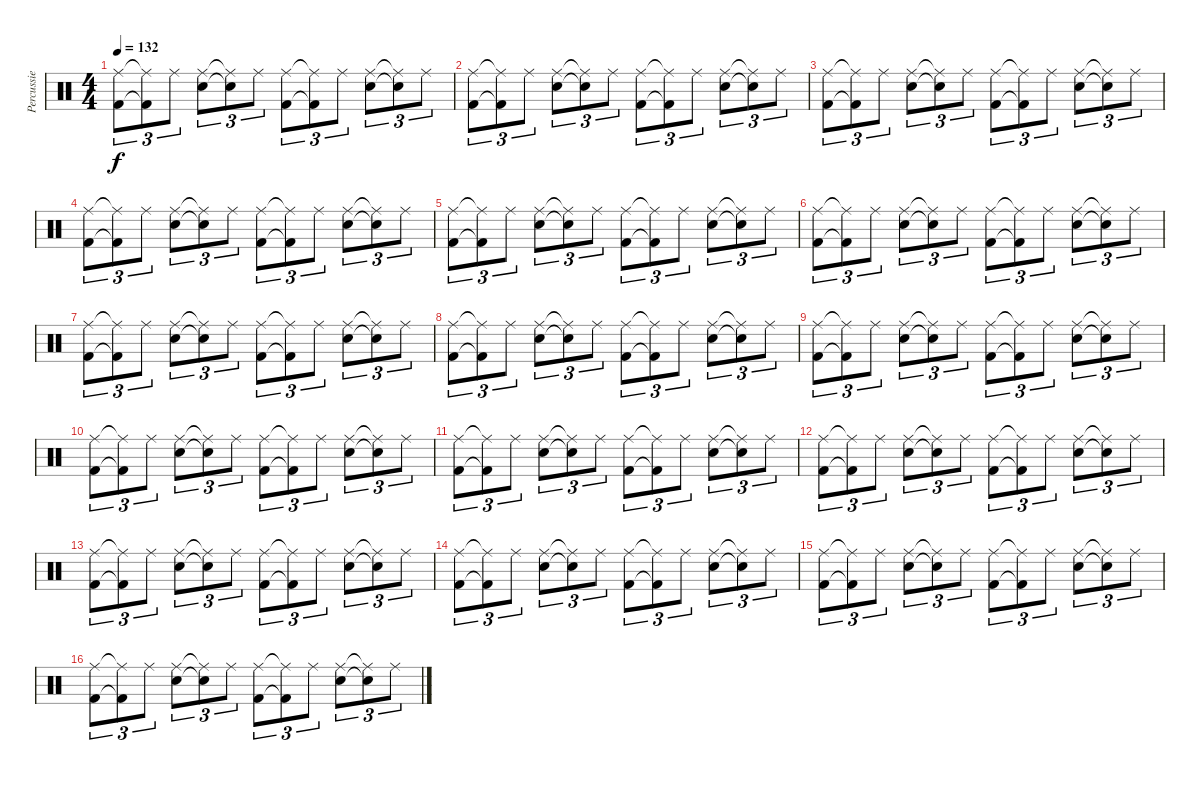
\track ("Percussie" "Percussie") {instrument percussion}
\staff {score}
\articulation defaults
\ts (4 4)
\tempo 132
\clef neutral
\ks c
("Kick (hit) 2" "Ride (middle)").8{tu (3 2) dy f} ("Kick (hit) 2"{t} "Ride (middle)"{t}).8{tu (3 2)} "Ride (middle)".8{tu (3 2)} ("Electric Snare (hit)" "Ride (middle)").8{tu (3 2)} ("Electric Snare (hit)"{t} "Ride (middle)"{t}).8{tu (3 2)} "Ride (middle)".8{tu (3 2)} ("Kick (hit) 2" "Ride (middle)").8{tu (3 2)} ("Kick (hit) 2"{t} "Ride (middle)"{t}).8{tu (3 2)} "Ride (middle)".8{tu (3 2)} ("Electric Snare (hit)" "Ride (middle)").8{tu (3 2)} ("Electric Snare (hit)"{t} "Ride (middle)"{t}).8{tu (3 2)} "Ride (middle)".8{tu (3 2)} |
("Kick (hit) 2" "Ride (middle)").8{tu (3 2)} ("Kick (hit) 2"{t} "Ride (middle)"{t}).8{tu (3 2)} "Ride (middle)".8{tu (3 2)} ("Electric Snare (hit)" "Ride (middle)").8{tu (3 2)} ("Electric Snare (hit)"{t} "Ride (middle)"{t}).8{tu (3 2)} "Ride (middle)".8{tu (3 2)} ("Kick (hit) 2" "Ride (middle)").8{tu (3 2)} ("Kick (hit) 2"{t} "Ride (middle)"{t}).8{tu (3 2)} "Ride (middle)".8{tu (3 2)} ("Electric Snare (hit)" "Ride (middle)").8{tu (3 2)} ("Electric Snare (hit)"{t} "Ride (middle)"{t}).8{tu (3 2)} "Ride (middle)".8{tu (3 2)} |
("Kick (hit) 2" "Ride (middle)").8{tu (3 2)} ("Kick (hit) 2"{t} "Ride (middle)"{t}).8{tu (3 2)} "Ride (middle)".8{tu (3 2)} ("Electric Snare (hit)" "Ride (middle)").8{tu (3 2)} ("Electric Snare (hit)"{t} "Ride (middle)"{t}).8{tu (3 2)} "Ride (middle)".8{tu (3 2)} ("Kick (hit) 2" "Ride (middle)").8{tu (3 2)} ("Kick (hit) 2"{t} "Ride (middle)"{t}).8{tu (3 2)} "Ride (middle)".8{tu (3 2)} ("Electric Snare (hit)" "Ride (middle)").8{tu (3 2)} ("Electric Snare (hit)"{t} "Ride (middle)"{t}).8{tu (3 2)} "Ride (middle)".8{tu (3 2)} |
("Kick (hit) 2" "Ride (middle)").8{tu (3 2)} ("Kick (hit) 2"{t} "Ride (middle)"{t}).8{tu (3 2)} "Ride (middle)".8{tu (3 2)} ("Electric Snare (hit)" "Ride (middle)").8{tu (3 2)} ("Electric Snare (hit)"{t} "Ride (middle)"{t}).8{tu (3 2)} "Ride (middle)".8{tu (3 2)} ("Kick (hit) 2" "Ride (middle)").8{tu (3 2)} ("Kick (hit) 2"{t} "Ride (middle)"{t}).8{tu (3 2)} "Ride (middle)".8{tu (3 2)} ("Electric Snare (hit)" "Ride (middle)").8{tu (3 2)} ("Electric Snare (hit)"{t} "Ride (middle)"{t}).8{tu (3 2)} "Ride (middle)".8{tu (3 2)} |
("Kick (hit) 2" "Ride (middle)").8{tu (3 2)} ("Kick (hit) 2"{t} "Ride (middle)"{t}).8{tu (3 2)} "Ride (middle)".8{tu (3 2)} ("Electric Snare (hit)" "Ride (middle)").8{tu (3 2)} ("Electric Snare (hit)"{t} "Ride (middle)"{t}).8{tu (3 2)} "Ride (middle)".8{tu (3 2)} ("Kick (hit) 2" "Ride (middle)").8{tu (3 2)} ("Kick (hit) 2"{t} "Ride (middle)"{t}).8{tu (3 2)} "Ride (middle)".8{tu (3 2)} ("Electric Snare (hit)" "Ride (middle)").8{tu (3 2)} ("Electric Snare (hit)"{t} "Ride (middle)"{t}).8{tu (3 2)} "Ride (middle)".8{tu (3 2)} |
("Kick (hit) 2" "Ride (middle)").8{tu (3 2)} ("Kick (hit) 2"{t} "Ride (middle)"{t}).8{tu (3 2)} "Ride (middle)".8{tu (3 2)} ("Electric Snare (hit)" "Ride (middle)").8{tu (3 2)} ("Electric Snare (hit)"{t} "Ride (middle)"{t}).8{tu (3 2)} "Ride (middle)".8{tu (3 2)} ("Kick (hit) 2" "Ride (middle)").8{tu (3 2)} ("Kick (hit) 2"{t} "Ride (middle)"{t}).8{tu (3 2)} "Ride (middle)".8{tu (3 2)} ("Electric Snare (hit)" "Ride (middle)").8{tu (3 2)} ("Electric Snare (hit)"{t} "Ride (middle)"{t}).8{tu (3 2)} "Ride (middle)".8{tu (3 2)} |
("Kick (hit) 2" "Ride (middle)").8{tu (3 2)} ("Kick (hit) 2"{t} "Ride (middle)"{t}).8{tu (3 2)} "Ride (middle)".8{tu (3 2)} ("Electric Snare (hit)" "Ride (middle)").8{tu (3 2)} ("Electric Snare (hit)"{t} "Ride (middle)"{t}).8{tu (3 2)} "Ride (middle)".8{tu (3 2)} ("Kick (hit) 2" "Ride (middle)").8{tu (3 2)} ("Kick (hit) 2"{t} "Ride (middle)"{t}).8{tu (3 2)} "Ride (middle)".8{tu (3 2)} ("Electric Snare (hit)" "Ride (middle)").8{tu (3 2)} ("Electric Snare (hit)"{t} "Ride (middle)"{t}).8{tu (3 2)} "Ride (middle)".8{tu (3 2)} |
("Kick (hit) 2" "Ride (middle)").8{tu (3 2)} ("Kick (hit) 2"{t} "Ride (middle)"{t}).8{tu (3 2)} "Ride (middle)".8{tu (3 2)} ("Electric Snare (hit)" "Ride (middle)").8{tu (3 2)} ("Electric Snare (hit)"{t} "Ride (middle)"{t}).8{tu (3 2)} "Ride (middle)".8{tu (3 2)} ("Kick (hit) 2" "Ride (middle)").8{tu (3 2)} ("Kick (hit) 2"{t} "Ride (middle)"{t}).8{tu (3 2)} "Ride (middle)".8{tu (3 2)} ("Electric Snare (hit)" "Ride (middle)").8{tu (3 2)} ("Electric Snare (hit)"{t} "Ride (middle)"{t}).8{tu (3 2)} "Ride (middle)".8{tu (3 2)} |
("Kick (hit) 2" "Ride (middle)").8{tu (3 2)} ("Kick (hit) 2"{t} "Ride (middle)"{t}).8{tu (3 2)} "Ride (middle)".8{tu (3 2)} ("Electric Snare (hit)" "Ride (middle)").8{tu (3 2)} ("Electric Snare (hit)"{t} "Ride (middle)"{t}).8{tu (3 2)} "Ride (middle)".8{tu (3 2)} ("Kick (hit) 2" "Ride (middle)").8{tu (3 2)} ("Kick (hit) 2"{t} "Ride (middle)"{t}).8{tu (3 2)} "Ride (middle)".8{tu (3 2)} ("Electric Snare (hit)" "Ride (middle)").8{tu (3 2)} ("Electric Snare (hit)"{t} "Ride (middle)"{t}).8{tu (3 2)} "Ride (middle)".8{tu (3 2)} |
("Kick (hit) 2" "Ride (middle)").8{tu (3 2)} ("Kick (hit) 2"{t} "Ride (middle)"{t}).8{tu (3 2)} "Ride (middle)".8{tu (3 2)} ("Electric Snare (hit)" "Ride (middle)").8{tu (3 2)} ("Electric Snare (hit)"{t} "Ride (middle)"{t}).8{tu (3 2)} "Ride (middle)".8{tu (3 2)} ("Kick (hit) 2" "Ride (middle)").8{tu (3 2)} ("Kick (hit) 2"{t} "Ride (middle)"{t}).8{tu (3 2)} "Ride (middle)".8{tu (3 2)} ("Electric Snare (hit)" "Ride (middle)").8{tu (3 2)} ("Electric Snare (hit)"{t} "Ride (middle)"{t}).8{tu (3 2)} "Ride (middle)".8{tu (3 2)} |
("Kick (hit) 2" "Ride (middle)").8{tu (3 2)} ("Kick (hit) 2"{t} "Ride (middle)"{t}).8{tu (3 2)} "Ride (middle)".8{tu (3 2)} ("Electric Snare (hit)" "Ride (middle)").8{tu (3 2)} ("Electric Snare (hit)"{t} "Ride (middle)"{t}).8{tu (3 2)} "Ride (middle)".8{tu (3 2)} ("Kick (hit) 2" "Ride (middle)").8{tu (3 2)} ("Kick (hit) 2"{t} "Ride (middle)"{t}).8{tu (3 2)} "Ride (middle)".8{tu (3 2)} ("Electric Snare (hit)" "Ride (middle)").8{tu (3 2)} ("Electric Snare (hit)"{t} "Ride (middle)"{t}).8{tu (3 2)} "Ride (middle)".8{tu (3 2)} |
("Kick (hit) 2" "Ride (middle)").8{tu (3 2)} ("Kick (hit) 2"{t} "Ride (middle)"{t}).8{tu (3 2)} "Ride (middle)".8{tu (3 2)} ("Electric Snare (hit)" "Ride (middle)").8{tu (3 2)} ("Electric Snare (hit)"{t} "Ride (middle)"{t}).8{tu (3 2)} "Ride (middle)".8{tu (3 2)} ("Kick (hit) 2" "Ride (middle)").8{tu (3 2)} ("Kick (hit) 2"{t} "Ride (middle)"{t}).8{tu (3 2)} "Ride (middle)".8{tu (3 2)} ("Electric Snare (hit)" "Ride (middle)").8{tu (3 2)} ("Electric Snare (hit)"{t} "Ride (middle)"{t}).8{tu (3 2)} "Ride (middle)".8{tu (3 2)} |
("Kick (hit) 2" "Ride (middle)").8{tu (3 2)} ("Kick (hit) 2"{t} "Ride (middle)"{t}).8{tu (3 2)} "Ride (middle)".8{tu (3 2)} ("Electric Snare (hit)" "Ride (middle)").8{tu (3 2)} ("Electric Snare (hit)"{t} "Ride (middle)"{t}).8{tu (3 2)} "Ride (middle)".8{tu (3 2)} ("Kick (hit) 2" "Ride (middle)").8{tu (3 2)} ("Kick (hit) 2"{t} "Ride (middle)"{t}).8{tu (3 2)} "Ride (middle)".8{tu (3 2)} ("Electric Snare (hit)" "Ride (middle)").8{tu (3 2)} ("Electric Snare (hit)"{t} "Ride (middle)"{t}).8{tu (3 2)} "Ride (middle)".8{tu (3 2)} |
("Kick (hit) 2" "Ride (middle)").8{tu (3 2)} ("Kick (hit) 2"{t} "Ride (middle)"{t}).8{tu (3 2)} "Ride (middle)".8{tu (3 2)} ("Electric Snare (hit)" "Ride (middle)").8{tu (3 2)} ("Electric Snare (hit)"{t} "Ride (middle)"{t}).8{tu (3 2)} "Ride (middle)".8{tu (3 2)} ("Kick (hit) 2" "Ride (middle)").8{tu (3 2)} ("Kick (hit) 2"{t} "Ride (middle)"{t}).8{tu (3 2)} "Ride (middle)".8{tu (3 2)} ("Electric Snare (hit)" "Ride (middle)").8{tu (3 2)} ("Electric Snare (hit)"{t} "Ride (middle)"{t}).8{tu (3 2)} "Ride (middle)".8{tu (3 2)} |
("Kick (hit) 2" "Ride (middle)").8{tu (3 2)} ("Kick (hit) 2"{t} "Ride (middle)"{t}).8{tu (3 2)} "Ride (middle)".8{tu (3 2)} ("Electric Snare (hit)" "Ride (middle)").8{tu (3 2)} ("Electric Snare (hit)"{t} "Ride (middle)"{t}).8{tu (3 2)} "Ride (middle)".8{tu (3 2)} ("Kick (hit) 2" "Ride (middle)").8{tu (3 2)} ("Kick (hit) 2"{t} "Ride (middle)"{t}).8{tu (3 2)} "Ride (middle)".8{tu (3 2)} ("Electric Snare (hit)" "Ride (middle)").8{tu (3 2)} ("Electric Snare (hit)"{t} "Ride (middle)"{t}).8{tu (3 2)} "Ride (middle)".8{tu (3 2)} |
("Kick (hit) 2" "Ride (middle)").8{tu (3 2)} ("Kick (hit) 2"{t} "Ride (middle)"{t}).8{tu (3 2)} "Ride (middle)".8{tu (3 2)} ("Electric Snare (hit)" "Ride (middle)").8{tu (3 2)} ("Electric Snare (hit)"{t} "Ride (middle)"{t}).8{tu (3 2)} "Ride (middle)".8{tu (3 2)} ("Kick (hit) 2" "Ride (middle)").8{tu (3 2)} ("Kick (hit) 2"{t} "Ride (middle)"{t}).8{tu (3 2)} "Ride (middle)".8{tu (3 2)} ("Electric Snare (hit)" "Ride (middle)").8{tu (3 2)} ("Electric Snare (hit)"{t} "Ride (middle)"{t}).8{tu (3 2)} "Ride (middle)".8{tu (3 2)}
